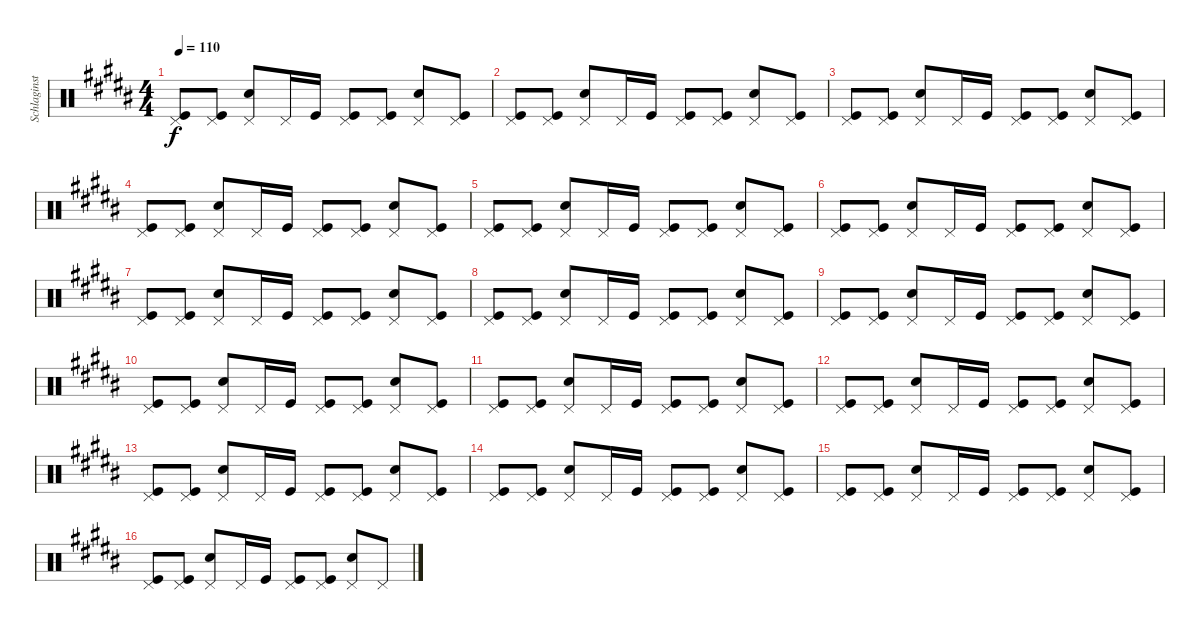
\track ("Schlaginstrumente - Auswahl" "Schlaginst") {instrument percussion}
\staff {score}
\articulation defaults
\ts (4 4)
\tempo 110
\clef neutral
\ks b
("Pedal Hi-Hat (hit)" "Kick (hit)").8{dy f} ("Pedal Hi-Hat (hit)" "Kick (hit)").8 ("Pedal Hi-Hat (hit)" "Snare (hit) 2").8 "Pedal Hi-Hat (hit)".16 "Kick (hit)".16 ("Pedal Hi-Hat (hit)" "Kick (hit)").8 ("Pedal Hi-Hat (hit)" "Kick (hit)").8 ("Pedal Hi-Hat (hit)" "Snare (hit) 2").8 ("Pedal Hi-Hat (hit)" "Kick (hit)").8 |
("Pedal Hi-Hat (hit)" "Kick (hit)").8 ("Pedal Hi-Hat (hit)" "Kick (hit)").8 ("Pedal Hi-Hat (hit)" "Snare (hit) 2").8 "Pedal Hi-Hat (hit)".16 "Kick (hit)".16 ("Pedal Hi-Hat (hit)" "Kick (hit)").8 ("Pedal Hi-Hat (hit)" "Kick (hit)").8 ("Pedal Hi-Hat (hit)" "Snare (hit) 2").8 ("Pedal Hi-Hat (hit)" "Kick (hit)").8 |
("Pedal Hi-Hat (hit)" "Kick (hit)").8 ("Pedal Hi-Hat (hit)" "Kick (hit)").8 ("Pedal Hi-Hat (hit)" "Snare (hit) 2").8 "Pedal Hi-Hat (hit)".16 "Kick (hit)".16 ("Pedal Hi-Hat (hit)" "Kick (hit)").8 ("Pedal Hi-Hat (hit)" "Kick (hit)").8 ("Pedal Hi-Hat (hit)" "Snare (hit) 2").8 ("Pedal Hi-Hat (hit)" "Kick (hit)").8 |
("Pedal Hi-Hat (hit)" "Kick (hit)").8 ("Pedal Hi-Hat (hit)" "Kick (hit)").8 ("Pedal Hi-Hat (hit)" "Snare (hit) 2").8 "Pedal Hi-Hat (hit)".16 "Kick (hit)".16 ("Pedal Hi-Hat (hit)" "Kick (hit)").8 ("Pedal Hi-Hat (hit)" "Kick (hit)").8 ("Pedal Hi-Hat (hit)" "Snare (hit) 2").8 ("Pedal Hi-Hat (hit)" "Kick (hit)").8 |
("Pedal Hi-Hat (hit)" "Kick (hit)").8 ("Pedal Hi-Hat (hit)" "Kick (hit)").8 ("Pedal Hi-Hat (hit)" "Snare (hit) 2").8 "Pedal Hi-Hat (hit)".16 "Kick (hit)".16 ("Pedal Hi-Hat (hit)" "Kick (hit)").8 ("Pedal Hi-Hat (hit)" "Kick (hit)").8 ("Pedal Hi-Hat (hit)" "Snare (hit) 2").8 ("Pedal Hi-Hat (hit)" "Kick (hit)").8 |
("Pedal Hi-Hat (hit)" "Kick (hit)").8 ("Pedal Hi-Hat (hit)" "Kick (hit)").8 ("Pedal Hi-Hat (hit)" "Snare (hit) 2").8 "Pedal Hi-Hat (hit)".16 "Kick (hit)".16 ("Pedal Hi-Hat (hit)" "Kick (hit)").8 ("Pedal Hi-Hat (hit)" "Kick (hit)").8 ("Pedal Hi-Hat (hit)" "Snare (hit) 2").8 ("Pedal Hi-Hat (hit)" "Kick (hit)").8 |
("Pedal Hi-Hat (hit)" "Kick (hit)").8 ("Pedal Hi-Hat (hit)" "Kick (hit)").8 ("Pedal Hi-Hat (hit)" "Snare (hit) 2").8 "Pedal Hi-Hat (hit)".16 "Kick (hit)".16 ("Pedal Hi-Hat (hit)" "Kick (hit)").8 ("Pedal Hi-Hat (hit)" "Kick (hit)").8 ("Pedal Hi-Hat (hit)" "Snare (hit) 2").8 ("Pedal Hi-Hat (hit)" "Kick (hit)").8 |
("Pedal Hi-Hat (hit)" "Kick (hit)").8 ("Pedal Hi-Hat (hit)" "Kick (hit)").8 ("Pedal Hi-Hat (hit)" "Snare (hit) 2").8 "Pedal Hi-Hat (hit)".16 "Kick (hit)".16 ("Pedal Hi-Hat (hit)" "Kick (hit)").8 ("Pedal Hi-Hat (hit)" "Kick (hit)").8 ("Pedal Hi-Hat (hit)" "Snare (hit) 2").8 ("Pedal Hi-Hat (hit)" "Kick (hit)").8 |
("Pedal Hi-Hat (hit)" "Kick (hit)").8 ("Pedal Hi-Hat (hit)" "Kick (hit)").8 ("Pedal Hi-Hat (hit)" "Snare (hit) 2").8 "Pedal Hi-Hat (hit)".16 "Kick (hit)".16 ("Pedal Hi-Hat (hit)" "Kick (hit)").8 ("Pedal Hi-Hat (hit)" "Kick (hit)").8 ("Pedal Hi-Hat (hit)" "Snare (hit) 2").8 ("Pedal Hi-Hat (hit)" "Kick (hit)").8 |
("Pedal Hi-Hat (hit)" "Kick (hit)").8 ("Pedal Hi-Hat (hit)" "Kick (hit)").8 ("Pedal Hi-Hat (hit)" "Snare (hit) 2").8 "Pedal Hi-Hat (hit)".16 "Kick (hit)".16 ("Pedal Hi-Hat (hit)" "Kick (hit)").8 ("Pedal Hi-Hat (hit)" "Kick (hit)").8 ("Pedal Hi-Hat (hit)" "Snare (hit) 2").8 ("Pedal Hi-Hat (hit)" "Kick (hit)").8 |
("Pedal Hi-Hat (hit)" "Kick (hit)").8 ("Pedal Hi-Hat (hit)" "Kick (hit)").8 ("Pedal Hi-Hat (hit)" "Snare (hit) 2").8 "Pedal Hi-Hat (hit)".16 "Kick (hit)".16 ("Pedal Hi-Hat (hit)" "Kick (hit)").8 ("Pedal Hi-Hat (hit)" "Kick (hit)").8 ("Pedal Hi-Hat (hit)" "Snare (hit) 2").8 ("Pedal Hi-Hat (hit)" "Kick (hit)").8 |
("Pedal Hi-Hat (hit)" "Kick (hit)").8 ("Pedal Hi-Hat (hit)" "Kick (hit)").8 ("Pedal Hi-Hat (hit)" "Snare (hit) 2").8 "Pedal Hi-Hat (hit)".16 "Kick (hit)".16 ("Pedal Hi-Hat (hit)" "Kick (hit)").8 ("Pedal Hi-Hat (hit)" "Kick (hit)").8 ("Pedal Hi-Hat (hit)" "Snare (hit) 2").8 ("Pedal Hi-Hat (hit)" "Kick (hit)").8 |
("Pedal Hi-Hat (hit)" "Kick (hit)").8 ("Pedal Hi-Hat (hit)" "Kick (hit)").8 ("Pedal Hi-Hat (hit)" "Snare (hit) 2").8 "Pedal Hi-Hat (hit)".16 "Kick (hit)".16 ("Pedal Hi-Hat (hit)" "Kick (hit)").8 ("Pedal Hi-Hat (hit)" "Kick (hit)").8 ("Pedal Hi-Hat (hit)" "Snare (hit) 2").8 ("Pedal Hi-Hat (hit)" "Kick (hit)").8 |
("Pedal Hi-Hat (hit)" "Kick (hit)").8 ("Pedal Hi-Hat (hit)" "Kick (hit)").8 ("Pedal Hi-Hat (hit)" "Snare (hit) 2").8 "Pedal Hi-Hat (hit)".16 "Kick (hit)".16 ("Pedal Hi-Hat (hit)" "Kick (hit)").8 ("Pedal Hi-Hat (hit)" "Kick (hit)").8 ("Pedal Hi-Hat (hit)" "Snare (hit) 2").8 ("Pedal Hi-Hat (hit)" "Kick (hit)").8 |
("Pedal Hi-Hat (hit)" "Kick (hit)").8 ("Pedal Hi-Hat (hit)" "Kick (hit)").8 ("Pedal Hi-Hat (hit)" "Snare (hit) 2").8 "Pedal Hi-Hat (hit)".16 "Kick (hit)".16 ("Pedal Hi-Hat (hit)" "Kick (hit)").8 ("Pedal Hi-Hat (hit)" "Kick (hit)").8 ("Pedal Hi-Hat (hit)" "Snare (hit) 2").8 ("Pedal Hi-Hat (hit)" "Kick (hit)").8 |
("Pedal Hi-Hat (hit)" "Kick (hit)").8 ("Pedal Hi-Hat (hit)" "Kick (hit)").8 ("Pedal Hi-Hat (hit)" "Snare (hit) 2").8 "Pedal Hi-Hat (hit)".16 "Kick (hit)".16 ("Pedal Hi-Hat (hit)" "Kick (hit)").8 ("Pedal Hi-Hat (hit)" "Kick (hit)").8 ("Pedal Hi-Hat (hit)" "Snare (hit) 2").8 "Pedal Hi-Hat (hit)".8
